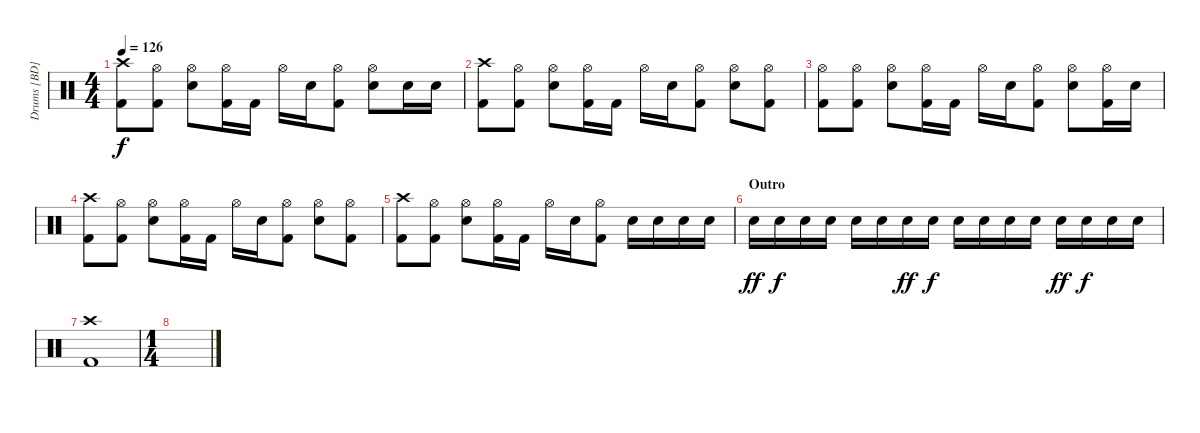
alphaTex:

\track ("Drums [BD]" "Drums [BD]") {instrument percussion}
\staff {score}
\articulation defaults
\ts (4 4)
\tempo 126
\clef neutral
\ks c
("Kick (hit) 2" "Crash high (hit)").8{dy f} ("Kick (hit) 2" "Hi-Hat (open)").8 ("Electric Snare (hit)" "Hi-Hat (open)").8 ("Kick (hit) 2" "Hi-Hat (open)").16 "Kick (hit) 2".16 "Hi-Hat (open)".16 "Electric Snare (hit)".16 ("Kick (hit) 2" "Hi-Hat (open)").8 ("Electric Snare (hit)" "Hi-Hat (open)").8 "Electric Snare (hit)".16 "Electric Snare (hit)".16 |
("Kick (hit) 2" "Crash high (hit)").8 ("Kick (hit) 2" "Hi-Hat (open)").8 ("Electric Snare (hit)" "Hi-Hat (open)").8 ("Kick (hit) 2" "Hi-Hat (open)").16 "Kick (hit) 2".16 "Hi-Hat (open)".16 "Electric Snare (hit)".16 ("Kick (hit) 2" "Hi-Hat (open)").8 ("Electric Snare (hit)" "Hi-Hat (open)").8 ("Kick (hit) 2" "Hi-Hat (open)").8 |
("Kick (hit) 2" "Hi-Hat (open)").8 ("Kick (hit) 2" "Hi-Hat (open)").8 ("Electric Snare (hit)" "Hi-Hat (open)").8 ("Kick (hit) 2" "Hi-Hat (open)").16 "Kick (hit) 2".16 "Hi-Hat (open)".16 "Electric Snare (hit)".16 ("Kick (hit) 2" "Hi-Hat (open)").8 ("Electric Snare (hit)" "Hi-Hat (open)").8 ("Kick (hit) 2" "Hi-Hat (open)").16 "Electric Snare (hit)".16 |
("Kick (hit) 2" "Crash high (hit)").8 ("Kick (hit) 2" "Hi-Hat (open)").8 ("Electric Snare (hit)" "Hi-Hat (open)").8 ("Kick (hit) 2" "Hi-Hat (open)").16 "Kick (hit) 2".16 "Hi-Hat (open)".16 "Electric Snare (hit)".16 ("Kick (hit) 2" "Hi-Hat (open)").8 ("Electric Snare (hit)" "Hi-Hat (open)").8 ("Kick (hit) 2" "Hi-Hat (open)").8 |
("Kick (hit) 2" "Crash high (hit)").8 ("Kick (hit) 2" "Hi-Hat (open)").8 ("Electric Snare (hit)" "Hi-Hat (open)").8 ("Kick (hit) 2" "Hi-Hat (open)").16 "Kick (hit) 2".16 "Hi-Hat (open)".16 "Electric Snare (hit)".16 ("Kick (hit) 2" "Hi-Hat (open)").8 "Electric Snare (hit)".16 "Electric Snare (hit)".16 "Electric Snare (hit)".16 "Electric Snare (hit)".16 |
\section ("" "Outro")
"Electric Snare (hit)".16{dy ff} "Electric Snare (hit)".16{dy f} "Electric Snare (hit)".16 "Electric Snare (hit)".16 "Electric Snare (hit)".16 "Electric Snare (hit)".16 "Electric Snare (hit)".16{dy ff} "Electric Snare (hit)".16{dy f} "Electric Snare (hit)".16 "Electric Snare (hit)".16 "Electric Snare (hit)".16 "Electric Snare (hit)".16 "Electric Snare (hit)".16{dy ff} "Electric Snare (hit)".16{dy f} "Electric Snare (hit)".16 "Electric Snare (hit)".16 |
("Crash high (hit)" "Kick (hit) 2").1 |
\ts (1 4)
